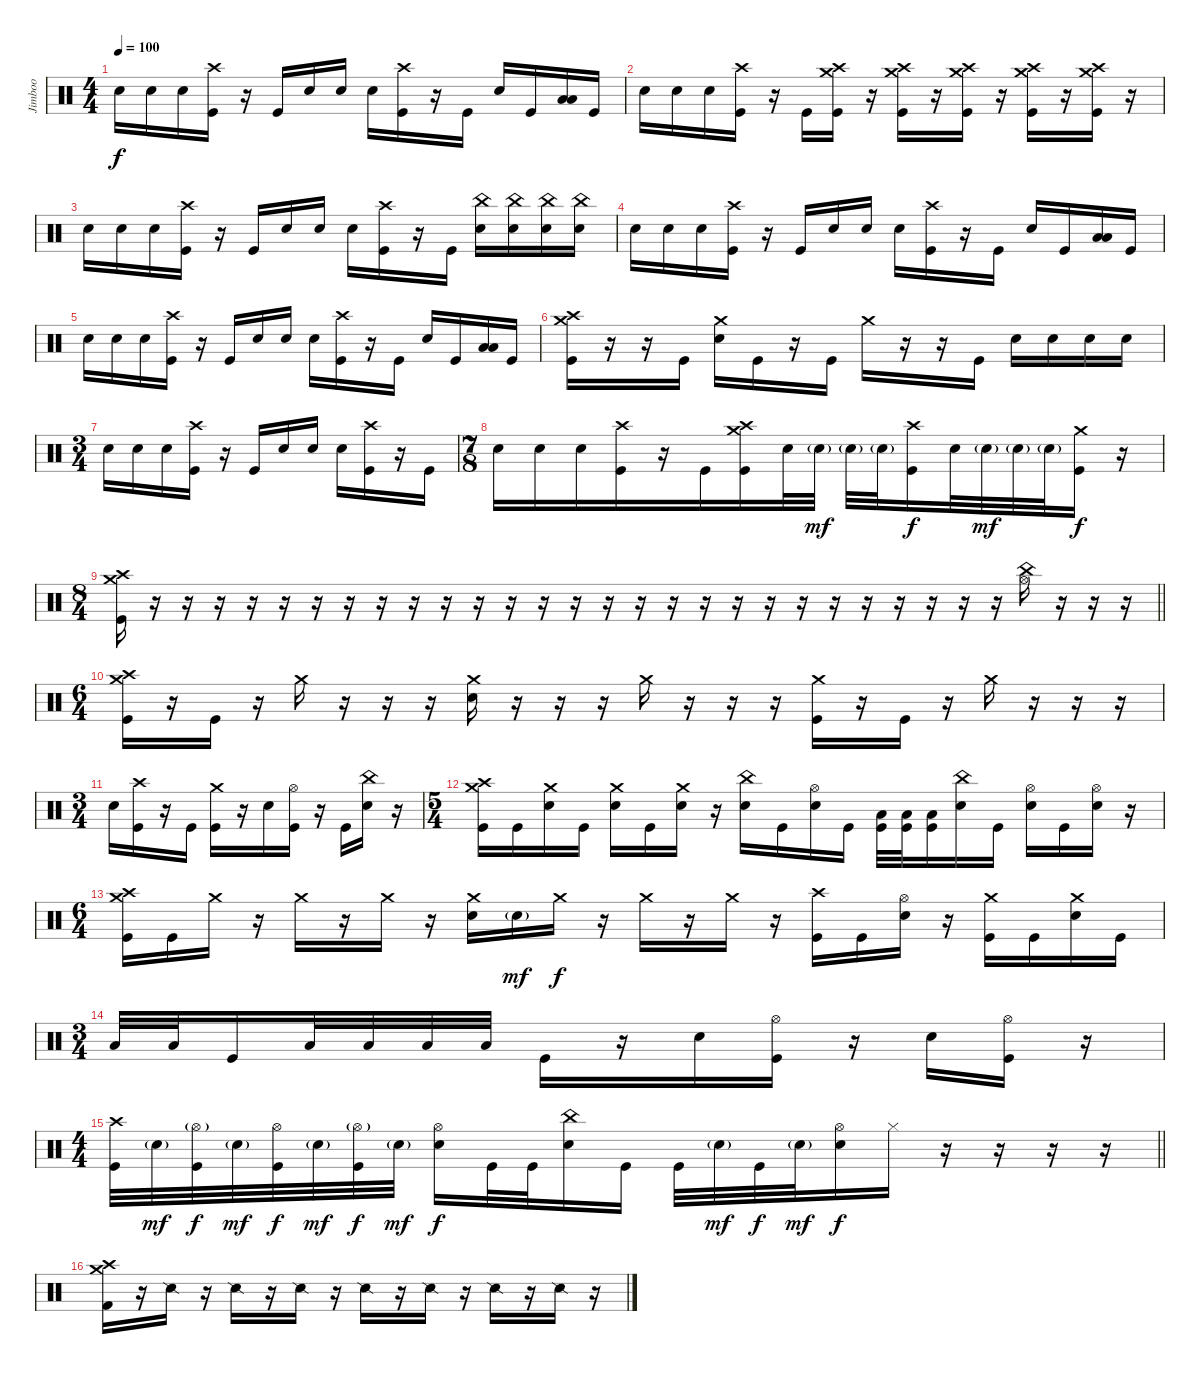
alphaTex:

\track ("Jimboo" "Jimboo") {instrument percussion}
\staff
\articulation defaults
\ts (4 4)
\tempo 100
\clef neutral
\ks c "Snare (hit) 2".16{dy f} "Snare (hit) 2".16 "Snare (hit) 2".16
("Kick (hit)" "Crash high (hit)").16 r.16 "Kick (hit)".16 "Snare (hit) 2".16 "Snare (hit) 2".16 "Snare (hit) 2".16 ("Kick (hit)" "Crash high (hit)").16 r.16 "Kick (hit)".16 "Snare (hit) 2".16 "Kick (hit)".16 ("Low Tom (hit)" "Low Floor Tom (hit)").16 "Kick (hit)".16 |
"Snare (hit) 2".16 "Snare (hit) 2".16 "Snare (hit) 2".16 ("Kick (hit)" "Crash high (hit)").16 r.16 "Kick (hit)".16 ("Kick (hit)" "Crash medium (hit)" "Crash high (hit)").16 r.16 ("Kick (hit)" "Crash medium (hit)" "Crash high (hit)").16 r.16 ("Kick (hit)" "Crash medium (hit)" "Crash high (hit)").16 r.16 ("Kick (hit)" "Crash medium (hit)" "Crash high (hit)").16 r.16 ("Kick (hit)" "Crash medium (hit)" "Crash high (hit)").16 r.16 |
"Snare (hit) 2".16 "Snare (hit) 2".16 "Snare (hit) 2".16 ("Kick (hit)" "Crash high (hit)").16 r.16 "Kick (hit)".16 "Snare (hit) 2".16 "Snare (hit) 2".16 "Snare (hit) 2".16 ("Kick (hit)" "Crash high (hit)").16 r.16 "Kick (hit)".16 ("Snare (hit) 2" "China (hit)").16 ("Snare (hit) 2" "China (hit)").16 ("Snare (hit) 2" "China (hit)").16 ("Snare (hit) 2" "China (hit)").16 |
"Snare (hit) 2".16 "Snare (hit) 2".16 "Snare (hit) 2".16 ("Kick (hit)" "Crash high (hit)").16 r.16 "Kick (hit)".16 "Snare (hit) 2".16 "Snare (hit) 2".16 "Snare (hit) 2".16 ("Kick (hit)" "Crash high (hit)").16 r.16 "Kick (hit)".16 "Snare (hit) 2".16 "Kick (hit)".16 ("Low Tom (hit)" "Low Floor Tom (hit)").16 "Kick (hit)".16 |
"Snare (hit) 2".16 "Snare (hit) 2".16 "Snare (hit) 2".16 ("Kick (hit)" "Crash high (hit)").16 r.16 "Kick (hit)".16 "Snare (hit) 2".16 "Snare (hit) 2".16 "Snare (hit) 2".16 ("Kick (hit)" "Crash high (hit)").16 r.16 "Kick (hit)".16 "Snare (hit) 2".16 "Kick (hit)".16 ("Low Tom (hit)" "Low Floor Tom (hit)").16 "Kick (hit)".16 |
("Kick (hit)" "Crash medium (hit)" "Crash high (hit)").16 r.16 r.16 "Kick (hit)".16 ("Snare (hit) 2" "Crash medium (hit)").16 "Kick (hit)".16 r.16 "Kick (hit)".16 "Crash medium (hit)".16 r.16 r.16 "Kick (hit)".16 "Snare (hit) 2".16 "Snare (hit) 2".16 "Snare (hit) 2".16 "Snare (hit) 2".16 |
\ts (3 4)
"Snare (hit) 2".16 "Snare (hit) 2".16 "Snare (hit) 2".16 ("Kick (hit)" "Crash high (hit)").16 r.16 "Kick (hit)".16 "Snare (hit) 2".16 "Snare (hit) 2".16 "Snare (hit) 2".16 ("Kick (hit)" "Crash high (hit)").16 r.16 "Kick (hit)".16 |
\ts (7 8)
"Snare (hit) 2".16 "Snare (hit) 2".16 "Snare (hit) 2".16 ("Kick (hit)" "Crash high (hit)").16 r.16 "Kick (hit)".16 ("Kick (hit)" "Crash medium (hit)" "Crash high (hit)").16 "Snare (hit) 2".32 "Snare (hit) 2"{g}.32{dy mf} "Snare (hit) 2"{g}.32 "Snare (hit) 2"{g}.32 ("Kick (hit)" "Crash high (hit)").16{dy f} "Snare (hit) 2".32 "Snare (hit) 2"{g}.32{dy mf} "Snare (hit) 2"{g}.32 "Snare (hit) 2"{g}.32 ("Kick (hit)" "Crash medium (hit)").16{dy f} r.16 |
\ts (8 4)
\barLineRight lightlight
("Kick (hit)" "Crash medium (hit)" "Crash high (hit)").16 r.16 r.16 r.16 r.16 r.16 r.16 r.16 r.16 r.16 r.16 r.16 r.16 r.16 r.16 r.16 r.16 r.16 r.16 r.16 r.16 r.16 r.16 r.16 r.16 r.16 r.16 r.16 ("China (hit)" "Hi-Hat (open)").16 r.16 r.16 r.16 |
\ts (6 4)
\section ("" "")
("Kick (hit)" "Crash medium (hit)" "Crash high (hit)").16 r.16 "Kick (hit)".16 r.16 "Crash medium (hit)".16 r.16 r.16 r.16 ("Snare (hit) 2" "Crash medium (hit)").16 r.16 r.16 r.16 "Crash medium (hit)".16 r.16 r.16 r.16 ("Kick (hit)" "Crash medium (hit)").16 r.16 "Kick (hit)".16 r.16 "Crash medium (hit)".16 r.16 r.16 r.16 |
\ts (3 4)
"Snare (hit) 2".16 ("Kick (hit)" "Crash high (hit)").16 r.16 "Kick (hit)".16 ("Kick (hit)" "Crash medium (hit)").16 r.16 "Snare (hit) 2".16 ("Kick (hit)" "Hi-Hat (open)").16 r.16 "Kick (hit)".16 ("Snare (hit) 2" "China (hit)").16 r.16 |
\ts (5 4)
("Crash medium (hit)" "Crash high (hit)" "Kick (hit)").16 "Kick (hit)".16 ("Snare (hit) 2" "Crash medium (hit)").16 "Kick (hit)".16 ("Snare (hit) 2" "Crash medium (hit)").16 "Kick (hit)".16 ("Snare (hit) 2" "Crash medium (hit)").16 r.16 ("Snare (hit) 2" "China (hit)").16 "Kick (hit)".16 ("Snare (hit) 2" "Hi-Hat (open)").16 "Kick (hit)".16 ("Kick (hit)" "Low Tom (hit)").32 ("Kick (hit)" "Low Tom (hit)").32 ("Kick (hit)" "Low Floor Tom (hit)").16 ("Snare (hit) 2" "China (hit)").16 "Kick (hit)".16 ("Snare (hit) 2" "Hi-Hat (open)").16 "Kick (hit)".16 ("Snare (hit) 2" "Hi-Hat (open)").16 r.16 |
\ts (6 4)
("Crash medium (hit)" "Crash high (hit)" "Kick (hit)").16 "Kick (hit)".16 "Crash medium (hit)".16 r.16 "Crash medium (hit)".16 r.16 "Crash medium (hit)".16 r.16 ("Snare (hit) 2" "Crash medium (hit)").16 "Snare (hit) 2"{g}.16{dy mf} "Crash medium (hit)".16{dy f} r.16 "Crash medium (hit)".16 r.16 "Crash medium (hit)".16 r.16 ("Crash high (hit)" "Kick (hit)").16 "Kick (hit)".16 ("Snare (hit) 2" "Hi-Hat (open)").16 r.16 ("Crash medium (hit)" "Kick (hit)").16 "Kick (hit)".16 ("Crash medium (hit)" "Snare (hit) 2").16 "Kick (hit)".16 |
\ts (3 4)
"Low Tom (hit)".32 "Low Tom (hit)".32 "Kick (hit)".16 "Low Floor Tom (hit)".32 "Low Floor Tom (hit)".32 "Low Floor Tom (hit)".32 "Low Floor Tom (hit)".32 "Kick (hit)".16 r.16 "Snare (hit) 2".16 ("Kick (hit)" "Hi-Hat (open)").16 r.16 "Snare (hit) 2".16 ("Kick (hit)" "Hi-Hat (open)").16 r.16 |
\ts (4 4)
\barLineRight lightlight
("Kick (hit)" "Crash high (hit)").32 "Snare (hit) 2"{g}.32{dy mf} ("Kick (hit)" "Hi-Hat (open)"{g}).32{dy f} "Snare (hit) 2"{g}.32{dy mf} ("Kick (hit)" "Hi-Hat (open)").32{dy f} "Snare (hit) 2"{g}.32{dy mf} ("Kick (hit)" "Hi-Hat (open)"{g}).32{dy f} "Snare (hit) 2"{g}.32{dy mf} ("Snare (hit) 2" "Hi-Hat (open)").16{dy f} "Kick (hit)".32 "Kick (hit)".32 ("Snare (hit) 2" "China (hit)").16 "Kick (hit)".16 "Kick (hit)".32 "Snare (hit) 2"{g}.32{dy mf} "Kick (hit)".32{dy f} "Snare (hit) 2"{g}.32{dy mf} ("Snare (hit) 2" "Hi-Hat (open)").16{dy f} "Hi-Hat (closed)".16 r.16 r.16 r.16 r.16 |
\section ("" "")
("Kick (hit) 2" "Crash medium (hit)" "Crash high (hit)").16 r.16 "Snare (side stick) 2".16 r.16 "Snare (side stick) 2".16 r.16 "Snare (side stick) 2".16 r.16 "Snare (side stick) 2".16 r.16 "Snare (side stick) 2".16 r.16 "Snare (side stick) 2".16 r.16 "Snare (side stick) 2".16 r.16
